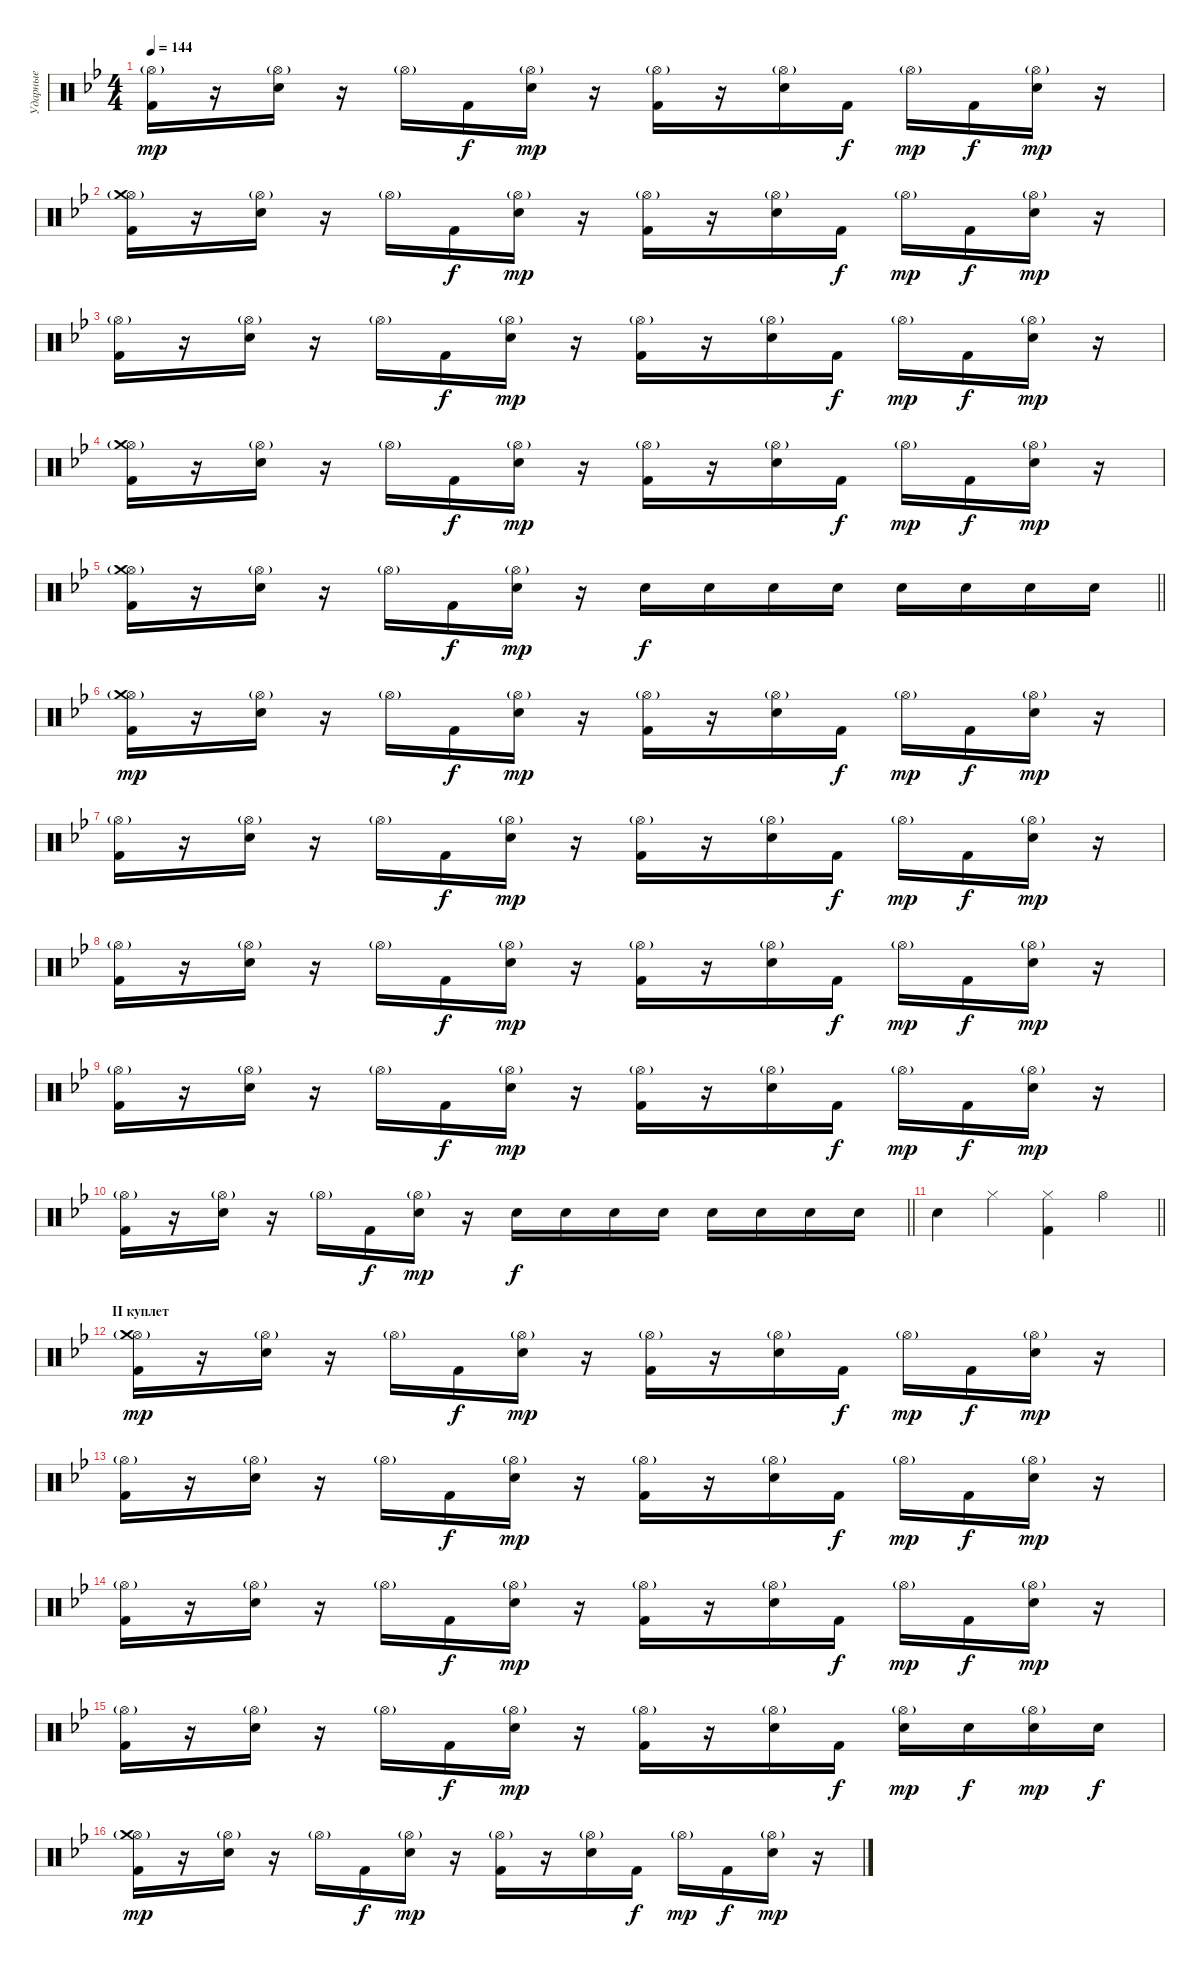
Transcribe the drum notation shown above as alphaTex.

\track ("Ударные" "Ударные") {instrument percussion}
\staff {score}
\articulation defaults
\ts (4 4)
\tempo 144
\clef neutral
\ks gminor
("Hi-Hat (open)"{g} "Kick (hit) 2").16{dy mp} r.16 ("Hi-Hat (open)"{g} "Electric Snare (hit)").16 r.16 "Hi-Hat (open)"{g}.16 "Kick (hit) 2".16{dy f} ("Hi-Hat (open)"{g} "Electric Snare (hit)").16{dy mp} r.16 ("Hi-Hat (open)"{g} "Kick (hit) 2").16 r.16 ("Hi-Hat (open)"{g} "Electric Snare (hit)").16 "Kick (hit) 2".16{dy f} "Hi-Hat (open)"{g}.16{dy mp} "Kick (hit) 2".16{dy f} ("Hi-Hat (open)"{g} "Electric Snare (hit)").16{dy mp} r.16 |
("Hi-Hat (open)"{g} "Crash medium (hit)" "Kick (hit) 2").16 r.16 ("Hi-Hat (open)"{g} "Electric Snare (hit)").16 r.16 "Hi-Hat (open)"{g}.16 "Kick (hit) 2".16{dy f} ("Hi-Hat (open)"{g} "Electric Snare (hit)").16{dy mp} r.16 ("Hi-Hat (open)"{g} "Kick (hit) 2").16 r.16 ("Hi-Hat (open)"{g} "Electric Snare (hit)").16 "Kick (hit) 2".16{dy f} "Hi-Hat (open)"{g}.16{dy mp} "Kick (hit) 2".16{dy f} ("Hi-Hat (open)"{g} "Electric Snare (hit)").16{dy mp} r.16 |
("Hi-Hat (open)"{g} "Kick (hit) 2").16 r.16 ("Hi-Hat (open)"{g} "Electric Snare (hit)").16 r.16 "Hi-Hat (open)"{g}.16 "Kick (hit) 2".16{dy f} ("Hi-Hat (open)"{g} "Electric Snare (hit)").16{dy mp} r.16 ("Hi-Hat (open)"{g} "Kick (hit) 2").16 r.16 ("Hi-Hat (open)"{g} "Electric Snare (hit)").16 "Kick (hit) 2".16{dy f} "Hi-Hat (open)"{g}.16{dy mp} "Kick (hit) 2".16{dy f} ("Hi-Hat (open)"{g} "Electric Snare (hit)").16{dy mp} r.16 |
("Hi-Hat (open)"{g} "Kick (hit) 2" "Crash medium (hit)").16 r.16 ("Hi-Hat (open)"{g} "Electric Snare (hit)").16 r.16 "Hi-Hat (open)"{g}.16 "Kick (hit) 2".16{dy f} ("Hi-Hat (open)"{g} "Electric Snare (hit)").16{dy mp} r.16 ("Hi-Hat (open)"{g} "Kick (hit) 2").16 r.16 ("Hi-Hat (open)"{g} "Electric Snare (hit)").16 "Kick (hit) 2".16{dy f} "Hi-Hat (open)"{g}.16{dy mp} "Kick (hit) 2".16{dy f} ("Hi-Hat (open)"{g} "Electric Snare (hit)").16{dy mp} r.16 |
\barLineRight lightlight
("Hi-Hat (open)"{g} "Crash medium (hit)" "Kick (hit) 2").16 r.16 ("Hi-Hat (open)"{g} "Electric Snare (hit)").16 r.16 "Hi-Hat (open)"{g}.16 "Kick (hit) 2".16{dy f} ("Hi-Hat (open)"{g} "Electric Snare (hit)").16{dy mp} r.16 "Electric Snare (hit)".16{dy f} "Electric Snare (hit)".16 "Electric Snare (hit)".16 "Electric Snare (hit)".16 "Electric Snare (hit)".16 "Electric Snare (hit)".16 "Electric Snare (hit)".16 "Electric Snare (hit)".16 |
("Hi-Hat (open)"{g} "Crash medium (hit)" "Kick (hit) 2").16{dy mp} r.16 ("Hi-Hat (open)"{g} "Electric Snare (hit)").16 r.16 "Hi-Hat (open)"{g}.16 "Kick (hit) 2".16{dy f} ("Hi-Hat (open)"{g} "Electric Snare (hit)").16{dy mp} r.16 ("Hi-Hat (open)"{g} "Kick (hit) 2").16 r.16 ("Hi-Hat (open)"{g} "Electric Snare (hit)").16 "Kick (hit) 2".16{dy f} "Hi-Hat (open)"{g}.16{dy mp} "Kick (hit) 2".16{dy f} ("Hi-Hat (open)"{g} "Electric Snare (hit)").16{dy mp} r.16 |
("Hi-Hat (open)"{g} "Kick (hit) 2").16 r.16 ("Hi-Hat (open)"{g} "Electric Snare (hit)").16 r.16 "Hi-Hat (open)"{g}.16 "Kick (hit) 2".16{dy f} ("Hi-Hat (open)"{g} "Electric Snare (hit)").16{dy mp} r.16 ("Hi-Hat (open)"{g} "Kick (hit) 2").16 r.16 ("Hi-Hat (open)"{g} "Electric Snare (hit)").16 "Kick (hit) 2".16{dy f} "Hi-Hat (open)"{g}.16{dy mp} "Kick (hit) 2".16{dy f} ("Hi-Hat (open)"{g} "Electric Snare (hit)").16{dy mp} r.16 |
("Hi-Hat (open)"{g} "Kick (hit) 2").16 r.16 ("Hi-Hat (open)"{g} "Electric Snare (hit)").16 r.16 "Hi-Hat (open)"{g}.16 "Kick (hit) 2".16{dy f} ("Hi-Hat (open)"{g} "Electric Snare (hit)").16{dy mp} r.16 ("Hi-Hat (open)"{g} "Kick (hit) 2").16 r.16 ("Hi-Hat (open)"{g} "Electric Snare (hit)").16 "Kick (hit) 2".16{dy f} "Hi-Hat (open)"{g}.16{dy mp} "Kick (hit) 2".16{dy f} ("Hi-Hat (open)"{g} "Electric Snare (hit)").16{dy mp} r.16 |
("Hi-Hat (open)"{g} "Kick (hit) 2").16 r.16 ("Hi-Hat (open)"{g} "Electric Snare (hit)").16 r.16 "Hi-Hat (open)"{g}.16 "Kick (hit) 2".16{dy f} ("Hi-Hat (open)"{g} "Electric Snare (hit)").16{dy mp} r.16 ("Hi-Hat (open)"{g} "Kick (hit) 2").16 r.16 ("Hi-Hat (open)"{g} "Electric Snare (hit)").16 "Kick (hit) 2".16{dy f} "Hi-Hat (open)"{g}.16{dy mp} "Kick (hit) 2".16{dy f} ("Hi-Hat (open)"{g} "Electric Snare (hit)").16{dy mp} r.16 |
\barLineRight lightlight
("Hi-Hat (open)"{g} "Kick (hit) 2").16 r.16 ("Hi-Hat (open)"{g} "Electric Snare (hit)").16 r.16 "Hi-Hat (open)"{g}.16 "Kick (hit) 2".16{dy f} ("Hi-Hat (open)"{g} "Electric Snare (hit)").16{dy mp} r.16 "Electric Snare (hit)".16{dy f} "Electric Snare (hit)".16 "Electric Snare (hit)".16 "Electric Snare (hit)".16 "Electric Snare (hit)".16 "Electric Snare (hit)".16 "Electric Snare (hit)".16 "Electric Snare (hit)".16 |
\barLineRight lightlight "Electric Snare (hit)".4 "Hi-Hat (closed)".4
("Hi-Hat (closed)" "Kick (hit) 2").4 "Hi-Hat (open)".4 |
\section ("" "II куплет")
("Hi-Hat (open)"{g} "Crash medium (hit)" "Kick (hit) 2").16{dy mp} r.16 ("Hi-Hat (open)"{g} "Electric Snare (hit)").16 r.16 "Hi-Hat (open)"{g}.16 "Kick (hit) 2".16{dy f} ("Hi-Hat (open)"{g} "Electric Snare (hit)").16{dy mp} r.16 ("Hi-Hat (open)"{g} "Kick (hit) 2").16 r.16 ("Hi-Hat (open)"{g} "Electric Snare (hit)").16 "Kick (hit) 2".16{dy f} "Hi-Hat (open)"{g}.16{dy mp} "Kick (hit) 2".16{dy f} ("Hi-Hat (open)"{g} "Electric Snare (hit)").16{dy mp} r.16 |
("Hi-Hat (open)"{g} "Kick (hit) 2").16 r.16 ("Hi-Hat (open)"{g} "Electric Snare (hit)").16 r.16 "Hi-Hat (open)"{g}.16 "Kick (hit) 2".16{dy f} ("Hi-Hat (open)"{g} "Electric Snare (hit)").16{dy mp} r.16 ("Hi-Hat (open)"{g} "Kick (hit) 2").16 r.16 ("Hi-Hat (open)"{g} "Electric Snare (hit)").16 "Kick (hit) 2".16{dy f} "Hi-Hat (open)"{g}.16{dy mp} "Kick (hit) 2".16{dy f} ("Hi-Hat (open)"{g} "Electric Snare (hit)").16{dy mp} r.16 |
("Hi-Hat (open)"{g} "Kick (hit) 2").16 r.16 ("Hi-Hat (open)"{g} "Electric Snare (hit)").16 r.16 "Hi-Hat (open)"{g}.16 "Kick (hit) 2".16{dy f} ("Hi-Hat (open)"{g} "Electric Snare (hit)").16{dy mp} r.16 ("Hi-Hat (open)"{g} "Kick (hit) 2").16 r.16 ("Hi-Hat (open)"{g} "Electric Snare (hit)").16 "Kick (hit) 2".16{dy f} "Hi-Hat (open)"{g}.16{dy mp} "Kick (hit) 2".16{dy f} ("Hi-Hat (open)"{g} "Electric Snare (hit)").16{dy mp} r.16 |
("Hi-Hat (open)"{g} "Kick (hit) 2").16 r.16 ("Hi-Hat (open)"{g} "Electric Snare (hit)").16 r.16 "Hi-Hat (open)"{g}.16 "Kick (hit) 2".16{dy f} ("Hi-Hat (open)"{g} "Electric Snare (hit)").16{dy mp} r.16 ("Hi-Hat (open)"{g} "Kick (hit) 2").16 r.16 ("Hi-Hat (open)"{g} "Electric Snare (hit)").16 "Kick (hit) 2".16{dy f} ("Hi-Hat (open)"{g} "Electric Snare (hit)").16{dy mp} "Electric Snare (hit)".16{dy f} ("Hi-Hat (open)"{g} "Electric Snare (hit)").16{dy mp} "Electric Snare (hit)".16{dy f} |
("Hi-Hat (open)"{g} "Crash medium (hit)" "Kick (hit) 2").16{dy mp} r.16 ("Hi-Hat (open)"{g} "Electric Snare (hit)").16 r.16 "Hi-Hat (open)"{g}.16 "Kick (hit) 2".16{dy f} ("Hi-Hat (open)"{g} "Electric Snare (hit)").16{dy mp} r.16 ("Hi-Hat (open)"{g} "Kick (hit) 2").16 r.16 ("Hi-Hat (open)"{g} "Electric Snare (hit)").16 "Kick (hit) 2".16{dy f} "Hi-Hat (open)"{g}.16{dy mp} "Kick (hit) 2".16{dy f} ("Hi-Hat (open)"{g} "Electric Snare (hit)").16{dy mp} r.16
